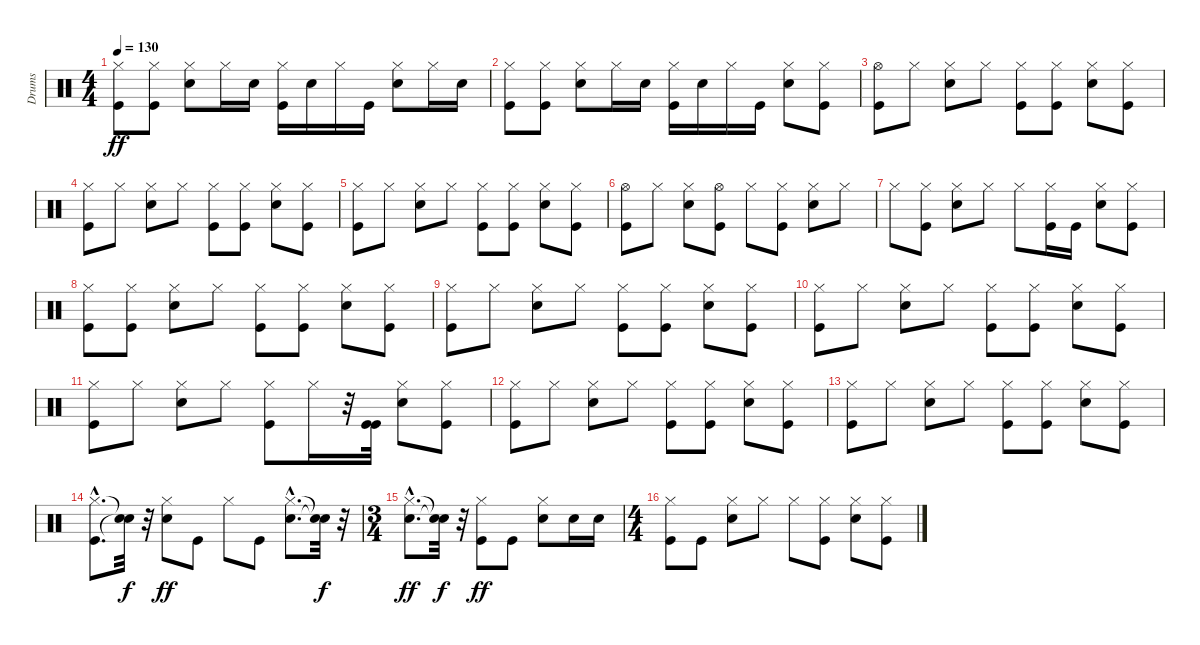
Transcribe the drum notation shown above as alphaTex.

\track ("Drums" "Drums") {instrument percussion}
\staff {score}
\articulation defaults
\ts (4 4)
\tempo 130
\clef neutral
\ks c
("Kick (hit)" "Hi-Hat (closed)").8{dy ff} ("Kick (hit)" "Hi-Hat (closed)").8 ("Snare (hit) 2" "Hi-Hat (closed)").8 "Hi-Hat (closed)".16 "Snare (hit) 2".16 ("Kick (hit)" "Hi-Hat (closed)").16 "Snare (hit) 2".16 "Hi-Hat (closed)".16 "Kick (hit)".16 ("Snare (hit) 2" "Hi-Hat (closed)").8 "Hi-Hat (closed)".16 "Snare (hit) 2".16 |
("Kick (hit)" "Hi-Hat (closed)").8 ("Kick (hit)" "Hi-Hat (closed)").8 ("Snare (hit) 2" "Hi-Hat (closed)").8 "Hi-Hat (closed)".16 "Snare (hit) 2".16 ("Kick (hit)" "Hi-Hat (closed)").16 "Snare (hit) 2".16 "Hi-Hat (closed)".16 "Kick (hit)".16 ("Snare (hit) 2" "Hi-Hat (closed)").8 ("Kick (hit)" "Hi-Hat (closed)").8 |
("Kick (hit)" "Hi-Hat (open)").8 "Hi-Hat (closed)".8 ("Snare (hit) 2" "Hi-Hat (closed)").8 "Hi-Hat (closed)".8 ("Kick (hit)" "Hi-Hat (closed)").8 ("Kick (hit)" "Hi-Hat (closed)").8 ("Snare (hit) 2" "Hi-Hat (closed)").8 ("Kick (hit)" "Hi-Hat (closed)").8 |
("Kick (hit)" "Hi-Hat (closed)").8 "Hi-Hat (closed)".8 ("Snare (hit) 2" "Hi-Hat (closed)").8 "Hi-Hat (closed)".8 ("Kick (hit)" "Hi-Hat (closed)").8 ("Kick (hit)" "Hi-Hat (closed)").8 ("Snare (hit) 2" "Hi-Hat (closed)").8 ("Kick (hit)" "Hi-Hat (closed)").8 |
("Kick (hit)" "Hi-Hat (closed)").8 "Hi-Hat (closed)".8 ("Snare (hit) 2" "Hi-Hat (closed)").8 "Hi-Hat (closed)".8 ("Kick (hit)" "Hi-Hat (closed)").8 ("Kick (hit)" "Hi-Hat (closed)").8 ("Snare (hit) 2" "Hi-Hat (closed)").8 ("Kick (hit)" "Hi-Hat (closed)").8 |
("Kick (hit)" "Hi-Hat (open)").8 "Hi-Hat (closed)".8 ("Snare (hit) 2" "Hi-Hat (closed)").8 ("Kick (hit)" "Hi-Hat (open)").8 "Hi-Hat (closed)".8 ("Kick (hit)" "Hi-Hat (closed)").8 ("Snare (hit) 2" "Hi-Hat (closed)").8 "Hi-Hat (closed)".8 |
"Hi-Hat (closed)".8 ("Kick (hit)" "Hi-Hat (closed)").8 ("Snare (hit) 2" "Hi-Hat (closed)").8 "Hi-Hat (closed)".8 "Hi-Hat (closed)".8 ("Kick (hit)" "Hi-Hat (closed)").16 "Kick (hit)".16 ("Snare (hit) 2" "Hi-Hat (closed)").8 ("Kick (hit)" "Hi-Hat (closed)").8 |
("Kick (hit)" "Hi-Hat (closed)").8 ("Kick (hit)" "Hi-Hat (closed)").8 ("Snare (hit) 2" "Hi-Hat (closed)").8 "Hi-Hat (closed)".8 ("Kick (hit)" "Hi-Hat (closed)").8 ("Kick (hit)" "Hi-Hat (closed)").8 ("Snare (hit) 2" "Hi-Hat (closed)").8 ("Kick (hit)" "Hi-Hat (closed)").8 |
("Kick (hit)" "Hi-Hat (closed)").8 "Hi-Hat (closed)".8 ("Snare (hit) 2" "Hi-Hat (closed)").8 "Hi-Hat (closed)".8 ("Kick (hit)" "Hi-Hat (closed)").8 ("Kick (hit)" "Hi-Hat (closed)").8 ("Snare (hit) 2" "Hi-Hat (closed)").8 ("Kick (hit)" "Hi-Hat (closed)").8 |
("Kick (hit)" "Hi-Hat (closed)").8 "Hi-Hat (closed)".8 ("Snare (hit) 2" "Hi-Hat (closed)").8 "Hi-Hat (closed)".8 ("Kick (hit)" "Hi-Hat (closed)").8 ("Kick (hit)" "Hi-Hat (closed)").8 ("Snare (hit) 2" "Hi-Hat (closed)").8 ("Kick (hit)" "Hi-Hat (closed)").8 |
("Kick (hit)" "Hi-Hat (closed)").8 "Hi-Hat (closed)".8 ("Snare (hit) 2" "Hi-Hat (closed)").8 "Hi-Hat (closed)".8 ("Kick (hit)" "Hi-Hat (closed)").8 "Hi-Hat (closed)".16 r.32 ("Kick (hit)" "Kick (hit)").32 ("Snare (hit) 2" "Hi-Hat (closed)").8 ("Kick (hit)" "Hi-Hat (closed)").8 |
("Kick (hit)" "Hi-Hat (closed)").8 "Hi-Hat (closed)".8 ("Snare (hit) 2" "Hi-Hat (closed)").8 "Hi-Hat (closed)".8 ("Kick (hit)" "Hi-Hat (closed)").8 ("Kick (hit)" "Hi-Hat (closed)").8 ("Snare (hit) 2" "Hi-Hat (closed)").8 ("Kick (hit)" "Hi-Hat (closed)").8 |
("Kick (hit)" "Hi-Hat (closed)").8 "Hi-Hat (closed)".8 ("Snare (hit) 2" "Hi-Hat (closed)").8 "Hi-Hat (closed)".8 ("Kick (hit)" "Hi-Hat (closed)").8 ("Kick (hit)" "Hi-Hat (closed)").8 ("Snare (hit) 2" "Hi-Hat (closed)").8 ("Kick (hit)" "Hi-Hat (closed)").8 |
("Kick (hit)"{hac} "Hi-Hat (closed)"{hac}).8{d} ("Snare (hit)"{t} "Snare (hit)"{t}).32{dy f} r.32 ("Snare (hit) 2" "Hi-Hat (closed)").8{dy ff} "Kick (hit)".8 "Hi-Hat (closed)".8 "Kick (hit)".8 ("Snare (hit) 2"{hac} "Hi-Hat (closed)"{hac}).8{d} ("Snare (hit)"{t} "Snare (hit)"{t}).32{dy f} r.32 |
\ts (3 4)
("Snare (hit) 2"{hac} "Hi-Hat (closed)"{hac}).8{d dy ff} ("Snare (hit)"{t} "Snare (hit)"{t}).32{dy f} r.32 ("Kick (hit)" "Hi-Hat (closed)").8{dy ff} "Kick (hit)".8 ("Snare (hit) 2" "Hi-Hat (closed)").8 "Snare (hit) 2".16 "Snare (hit) 2".16 |
\ts (4 4)
("Kick (hit)" "Hi-Hat (closed)").8 "Kick (hit)".8 ("Snare (hit) 2" "Hi-Hat (closed)").8 "Hi-Hat (closed)".8 "Hi-Hat (closed)".8 ("Kick (hit)" "Hi-Hat (closed)").8 ("Snare (hit) 2" "Hi-Hat (closed)").8 ("Kick (hit)" "Hi-Hat (closed)").8
